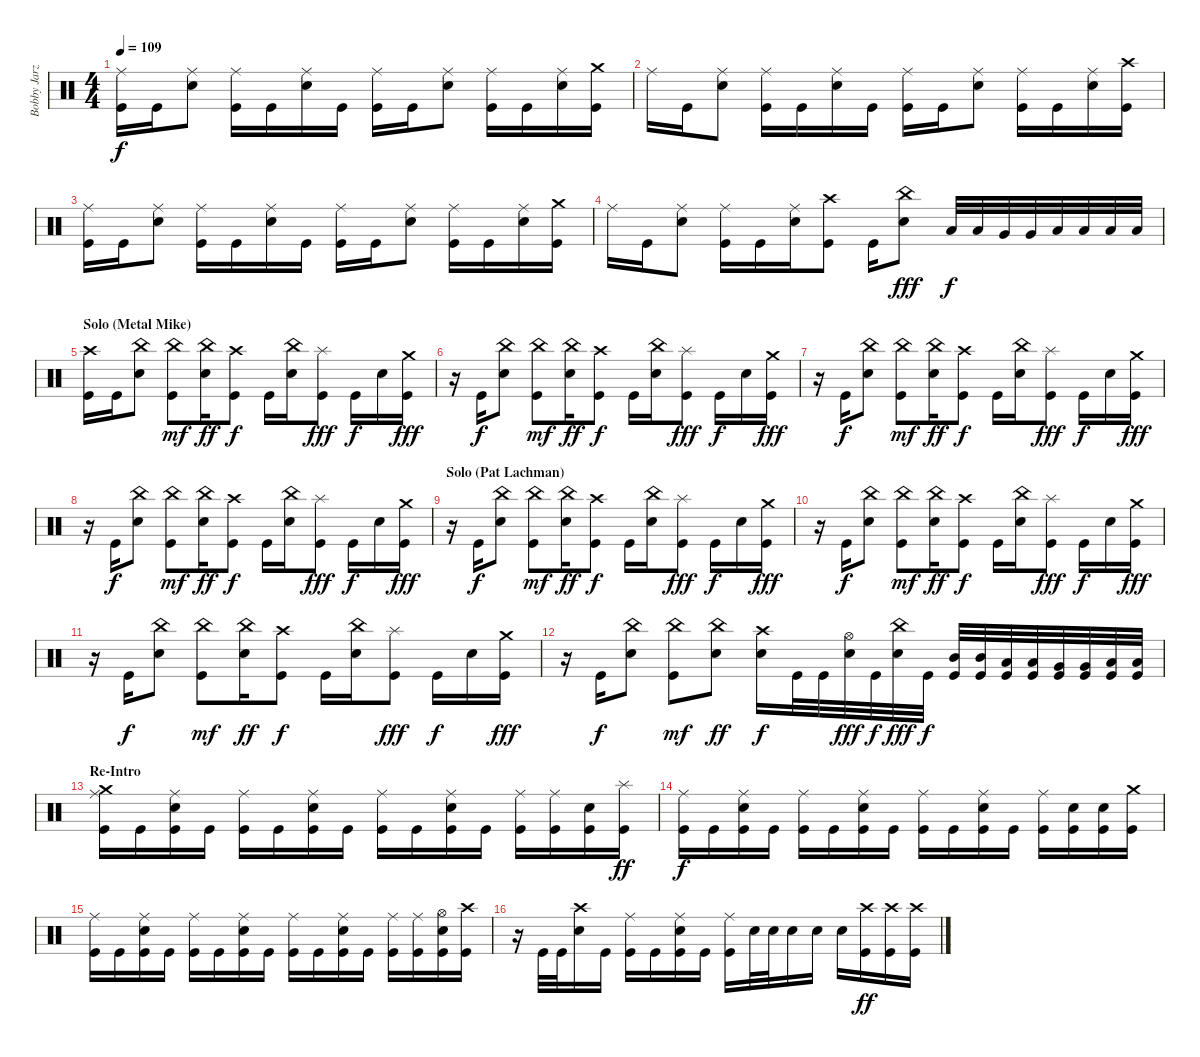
\track ("Bobby Jarzombek" "Bobby Jarz") {instrument percussion}
\staff {score}
\articulation defaults
\ts (4 4)
\tempo 109
\clef neutral
\ks c
("Ride (middle)" "Kick (hit)").16{dy f} "Kick (hit)".16 ("Ride (middle)" "Electric Snare (hit)").8 ("Ride (middle)" "Kick (hit)").16 "Kick (hit)".16 ("Ride (middle)" "Electric Snare (hit)").16 "Kick (hit)".16 ("Ride (middle)" "Kick (hit)").16 "Kick (hit)".16 ("Ride (middle)" "Electric Snare (hit)").8 ("Ride (middle)" "Kick (hit)").16 "Kick (hit)".16 ("Ride (middle)" "Electric Snare (hit)").16 ("Crash medium (hit)" "Kick (hit)").16 |
"Ride (middle)".16 "Kick (hit)".16 ("Ride (middle)" "Electric Snare (hit)").8 ("Ride (middle)" "Kick (hit)").16 "Kick (hit)".16 ("Ride (middle)" "Electric Snare (hit)").16 "Kick (hit)".16 ("Ride (middle)" "Kick (hit)").16 "Kick (hit)".16 ("Ride (middle)" "Electric Snare (hit)").8 ("Ride (middle)" "Kick (hit)").16 "Kick (hit)".16 ("Ride (middle)" "Electric Snare (hit)").16 ("Crash high (hit)" "Kick (hit)").16 |
("Ride (middle)" "Kick (hit)").16 "Kick (hit)".16 ("Ride (middle)" "Electric Snare (hit)").8 ("Ride (middle)" "Kick (hit)").16 "Kick (hit)".16 ("Ride (middle)" "Electric Snare (hit)").16 "Kick (hit)".16 ("Ride (middle)" "Kick (hit)").16 "Kick (hit)".16 ("Ride (middle)" "Electric Snare (hit)").8 ("Ride (middle)" "Kick (hit)").16 "Kick (hit)".16 ("Ride (middle)" "Electric Snare (hit)").16 ("Crash medium (hit)" "Kick (hit)").16 |
"Ride (middle)".16 "Kick (hit)".16 ("Ride (middle)" "Electric Snare (hit)").8 ("Ride (middle)" "Kick (hit)").16 "Kick (hit)".16 ("Ride (middle)" "Electric Snare (hit)").16 ("Crash high (hit)" "Kick (hit)").8 "Kick (hit)".16 ("China (hit)" "Electric Snare (hit)").8{dy fff} "Low Tom (hit)".32{dy f} "Low Tom (hit)".32 "Very Low Tom (hit)".32 "Very Low Tom (hit)".32 "Low Floor Tom (hit)".32 "Low Floor Tom (hit)".32 "Low Floor Tom (hit)".32 "Low Floor Tom (hit)".32 |
\section ("" "Solo (Metal Mike)")
("Crash high (hit)" "Kick (hit)").16 "Kick (hit)".16 ("China (hit)" "Electric Snare (hit)").8 ("China (hit)" "Kick (hit)").8{dy mf} ("China (hit)" "Electric Snare (hit)").16{dy ff} ("Crash high (hit)" "Kick (hit)").8{dy f} "Kick (hit)".16 ("China (hit)" "Electric Snare (hit)").16 ("Splash (hit)" "Kick (hit)").8{dy fff} "Kick (hit)".16{dy f} "Electric Snare (hit)".16 ("Crash medium (hit)" "Kick (hit)").16{dy fff} |
r.16 "Kick (hit)".16{dy f} ("China (hit)" "Electric Snare (hit)").8 ("China (hit)" "Kick (hit)").8{dy mf} ("China (hit)" "Electric Snare (hit)").16{dy ff} ("Crash high (hit)" "Kick (hit)").8{dy f} "Kick (hit)".16 ("China (hit)" "Electric Snare (hit)").16 ("Splash (hit)" "Kick (hit)").8{dy fff} "Kick (hit)".16{dy f} "Electric Snare (hit)".16 ("Crash medium (hit)" "Kick (hit)").16{dy fff} |
r.16 "Kick (hit)".16{dy f} ("China (hit)" "Electric Snare (hit)").8 ("China (hit)" "Kick (hit)").8{dy mf} ("China (hit)" "Electric Snare (hit)").16{dy ff} ("Crash high (hit)" "Kick (hit)").8{dy f} "Kick (hit)".16 ("China (hit)" "Electric Snare (hit)").16 ("Splash (hit)" "Kick (hit)").8{dy fff} "Kick (hit)".16{dy f} "Electric Snare (hit)".16 ("Crash medium (hit)" "Kick (hit)").16{dy fff} |
r.16 "Kick (hit)".16{dy f} ("China (hit)" "Electric Snare (hit)").8 ("China (hit)" "Kick (hit)").8{dy mf} ("China (hit)" "Electric Snare (hit)").16{dy ff} ("Crash high (hit)" "Kick (hit)").8{dy f} "Kick (hit)".16 ("China (hit)" "Electric Snare (hit)").16 ("Splash (hit)" "Kick (hit)").8{dy fff} "Kick (hit)".16{dy f} "Electric Snare (hit)".16 ("Crash medium (hit)" "Kick (hit)").16{dy fff} |
\section ("" "Solo (Pat Lachman)")
r.16 "Kick (hit)".16{dy f} ("China (hit)" "Electric Snare (hit)").8 ("China (hit)" "Kick (hit)").8{dy mf} ("China (hit)" "Electric Snare (hit)").16{dy ff} ("Crash high (hit)" "Kick (hit)").8{dy f} "Kick (hit)".16 ("China (hit)" "Electric Snare (hit)").16 ("Splash (hit)" "Kick (hit)").8{dy fff} "Kick (hit)".16{dy f} "Electric Snare (hit)".16 ("Crash medium (hit)" "Kick (hit)").16{dy fff} |
r.16 "Kick (hit)".16{dy f} ("China (hit)" "Electric Snare (hit)").8 ("China (hit)" "Kick (hit)").8{dy mf} ("China (hit)" "Electric Snare (hit)").16{dy ff} ("Crash high (hit)" "Kick (hit)").8{dy f} "Kick (hit)".16 ("China (hit)" "Electric Snare (hit)").16 ("Splash (hit)" "Kick (hit)").8{dy fff} "Kick (hit)".16{dy f} "Electric Snare (hit)".16 ("Crash medium (hit)" "Kick (hit)").16{dy fff} |
r.16 "Kick (hit)".16{dy f} ("China (hit)" "Electric Snare (hit)").8 ("China (hit)" "Kick (hit)").8{dy mf} ("China (hit)" "Electric Snare (hit)").16{dy ff} ("Crash high (hit)" "Kick (hit)").8{dy f} "Kick (hit)".16 ("China (hit)" "Electric Snare (hit)").16 ("Splash (hit)" "Kick (hit)").8{dy fff} "Kick (hit)".16{dy f} "Electric Snare (hit)".16 ("Crash medium (hit)" "Kick (hit)").16{dy fff} |
r.16 "Kick (hit)".16{dy f} ("China (hit)" "Electric Snare (hit)").8 ("China (hit)" "Kick (hit)").8{dy mf} ("China (hit)" "Electric Snare (hit)").8{dy ff} ("Crash high (hit)" "Electric Snare (hit)").16{dy f} "Kick (hit)".32 "Kick (hit)".32 ("Hi-Hat (open)" "Electric Snare (hit)").32{dy fff} "Kick (hit)".32{dy f} ("China (hit)" "Electric Snare (hit)").32{dy fff} "Kick (hit)".32{dy f} ("Mid Tom (hit)" "Kick (hit)").32 ("Mid Tom (hit)" "Kick (hit)").32 ("Low Tom (hit)" "Kick (hit)").32 ("Low Tom (hit)" "Kick (hit)").32 ("Very Low Tom (hit)" "Kick (hit)").32 ("Very Low Tom (hit)" "Kick (hit)").32 ("Low Floor Tom (hit)" "Kick (hit)").32 ("Low Floor Tom (hit)" "Kick (hit)").32 |
\section ("" "Re-Intro")
("Kick (hit)" "Ride (middle)" "Crash medium (hit)").16 "Kick (hit)".16 ("Kick (hit)" "Ride (middle)" "Electric Snare (hit)").16 "Kick (hit)".16 ("Kick (hit)" "Ride (middle)").16 "Kick (hit)".16 ("Kick (hit)" "Ride (middle)" "Electric Snare (hit)").16 "Kick (hit)".16 ("Kick (hit)" "Ride (middle)").16 "Kick (hit)".16 ("Kick (hit)" "Ride (middle)" "Electric Snare (hit)").16 "Kick (hit)".16 ("Kick (hit)" "Ride (middle)").16 ("Kick (hit)" "Ride (middle)").16 ("Kick (hit)" "Electric Snare (hit)").16 ("Kick (hit)" "Splash (hit)").16{dy ff} |
("Kick (hit)" "Ride (middle)").16{dy f} "Kick (hit)".16 ("Kick (hit)" "Ride (middle)" "Electric Snare (hit)").16 "Kick (hit)".16 ("Kick (hit)" "Ride (middle)").16 "Kick (hit)".16 ("Kick (hit)" "Ride (middle)" "Electric Snare (hit)").16 "Kick (hit)".16 ("Kick (hit)" "Ride (middle)").16 "Kick (hit)".16 ("Kick (hit)" "Ride (middle)" "Electric Snare (hit)").16 "Kick (hit)".16 ("Kick (hit)" "Ride (middle)").16 ("Kick (hit)" "Electric Snare (hit)").16 ("Kick (hit)" "Electric Snare (hit)").16 ("Kick (hit)" "Crash medium (hit)").16 |
("Kick (hit)" "Ride (middle)").16 "Kick (hit)".16 ("Kick (hit)" "Ride (middle)" "Electric Snare (hit)").16 "Kick (hit)".16 ("Kick (hit)" "Ride (middle)").16 "Kick (hit)".16 ("Kick (hit)" "Ride (middle)" "Electric Snare (hit)").16 "Kick (hit)".16 ("Kick (hit)" "Ride (middle)").16 "Kick (hit)".16 ("Kick (hit)" "Ride (middle)" "Electric Snare (hit)").16 "Kick (hit)".16 ("Kick (hit)" "Ride (middle)").16 ("Kick (hit)" "Ride (middle)").16 ("Kick (hit)" "Hi-Hat (open)" "Electric Snare (hit)").16 ("Kick (hit)" "Crash high (hit)").16 |
r.16 "Kick (hit)".32 "Kick (hit)".32 ("Crash high (hit)" "Electric Snare (hit)").16 "Kick (hit)".16 ("Kick (hit)" "Ride (middle)").16 "Kick (hit)".16 ("Kick (hit)" "Ride (middle)" "Electric Snare (hit)").16 "Kick (hit)".16 ("Kick (hit)" "Ride (middle)").16 "Electric Snare (hit)".32 "Electric Snare (hit)".32 "Electric Snare (hit)".16 "Electric Snare (hit)".16 "Electric Snare (hit)".16 ("Crash high (hit)" "Kick (hit)").16{dy ff} ("Crash high (hit)" "Kick (hit)").16 ("Crash high (hit)" "Kick (hit)").16
